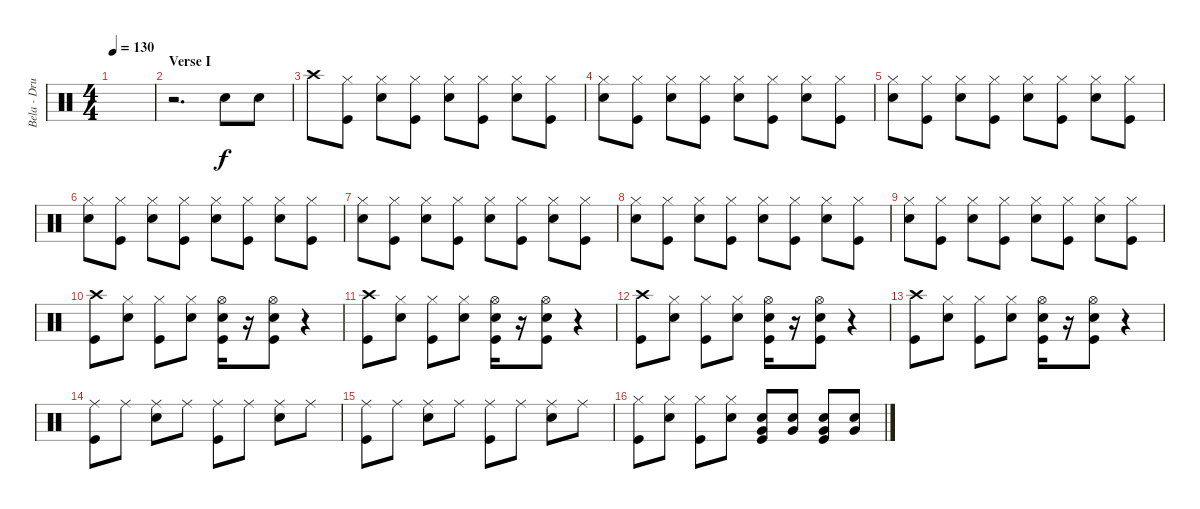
\track ("Bela - Drums" "Bela - Dru") {instrument percussion}
\staff {score}
\articulation defaults
\ts (4 4)
\tempo 130
\clef neutral
\ks c
|
\section ("" "Verse I")
r.2{d} "Electric Snare (hit)".8 "Electric Snare (hit)".8 |
"Crash high (hit)".8 ("Hi-Hat (closed)" "Kick (hit)").8 ("Hi-Hat (closed)" "Electric Snare (hit)").8 ("Hi-Hat (closed)" "Kick (hit)").8 ("Hi-Hat (closed)" "Electric Snare (hit)").8 ("Hi-Hat (closed)" "Kick (hit)").8 ("Hi-Hat (closed)" "Electric Snare (hit)").8 ("Hi-Hat (closed)" "Kick (hit)").8 |
("Hi-Hat (closed)" "Electric Snare (hit)").8 ("Hi-Hat (closed)" "Kick (hit)").8 ("Hi-Hat (closed)" "Electric Snare (hit)").8 ("Hi-Hat (closed)" "Kick (hit)").8 ("Hi-Hat (closed)" "Electric Snare (hit)").8 ("Hi-Hat (closed)" "Kick (hit)").8 ("Hi-Hat (closed)" "Electric Snare (hit)").8 ("Hi-Hat (closed)" "Kick (hit)").8 |
("Hi-Hat (closed)" "Electric Snare (hit)").8 ("Hi-Hat (closed)" "Kick (hit)").8 ("Hi-Hat (closed)" "Electric Snare (hit)").8 ("Hi-Hat (closed)" "Kick (hit)").8 ("Hi-Hat (closed)" "Electric Snare (hit)").8 ("Hi-Hat (closed)" "Kick (hit)").8 ("Hi-Hat (closed)" "Electric Snare (hit)").8 ("Hi-Hat (closed)" "Kick (hit)").8 |
("Hi-Hat (closed)" "Electric Snare (hit)").8 ("Hi-Hat (closed)" "Kick (hit)").8 ("Hi-Hat (closed)" "Electric Snare (hit)").8 ("Hi-Hat (closed)" "Kick (hit)").8 ("Hi-Hat (closed)" "Electric Snare (hit)").8 ("Hi-Hat (closed)" "Kick (hit)").8 ("Hi-Hat (closed)" "Electric Snare (hit)").8 ("Hi-Hat (closed)" "Kick (hit)").8 |
("Hi-Hat (closed)" "Electric Snare (hit)").8 ("Hi-Hat (closed)" "Kick (hit)").8 ("Hi-Hat (closed)" "Electric Snare (hit)").8 ("Hi-Hat (closed)" "Kick (hit)").8 ("Hi-Hat (closed)" "Electric Snare (hit)").8 ("Hi-Hat (closed)" "Kick (hit)").8 ("Hi-Hat (closed)" "Electric Snare (hit)").8 ("Hi-Hat (closed)" "Kick (hit)").8 |
("Hi-Hat (closed)" "Electric Snare (hit)").8 ("Hi-Hat (closed)" "Kick (hit)").8 ("Hi-Hat (closed)" "Electric Snare (hit)").8 ("Hi-Hat (closed)" "Kick (hit)").8 ("Hi-Hat (closed)" "Electric Snare (hit)").8 ("Hi-Hat (closed)" "Kick (hit)").8 ("Hi-Hat (closed)" "Electric Snare (hit)").8 ("Hi-Hat (closed)" "Kick (hit)").8 |
("Hi-Hat (closed)" "Electric Snare (hit)").8 ("Hi-Hat (closed)" "Kick (hit)").8 ("Hi-Hat (closed)" "Electric Snare (hit)").8 ("Hi-Hat (closed)" "Kick (hit)").8 ("Hi-Hat (closed)" "Electric Snare (hit)").8 ("Hi-Hat (closed)" "Kick (hit)").8 ("Hi-Hat (closed)" "Electric Snare (hit)").8 ("Hi-Hat (closed)" "Kick (hit)").8 |
("Crash high (hit)" "Kick (hit)").8 ("Hi-Hat (closed)" "Electric Snare (hit)").8 ("Hi-Hat (closed)" "Kick (hit)").8 ("Hi-Hat (closed)" "Electric Snare (hit)").8 ("Hi-Hat (open)" "Electric Snare (hit)" "Kick (hit)").16 r.16 ("Hi-Hat (open)" "Electric Snare (hit)" "Kick (hit)").8 r.4 |
("Crash high (hit)" "Kick (hit)").8 ("Hi-Hat (closed)" "Electric Snare (hit)").8 ("Hi-Hat (closed)" "Kick (hit)").8 ("Hi-Hat (closed)" "Electric Snare (hit)").8 ("Hi-Hat (open)" "Electric Snare (hit)" "Kick (hit)").16 r.16 ("Hi-Hat (open)" "Electric Snare (hit)" "Kick (hit)").8 r.4 |
("Crash high (hit)" "Kick (hit)").8 ("Hi-Hat (closed)" "Electric Snare (hit)").8 ("Hi-Hat (closed)" "Kick (hit)").8 ("Hi-Hat (closed)" "Electric Snare (hit)").8 ("Hi-Hat (open)" "Electric Snare (hit)" "Kick (hit)").16 r.16 ("Hi-Hat (open)" "Electric Snare (hit)" "Kick (hit)").8 r.4 |
("Crash high (hit)" "Kick (hit)").8 ("Hi-Hat (closed)" "Electric Snare (hit)").8 ("Hi-Hat (closed)" "Kick (hit)").8 ("Hi-Hat (closed)" "Electric Snare (hit)").8 ("Hi-Hat (open)" "Electric Snare (hit)" "Kick (hit)").16 r.16 ("Hi-Hat (open)" "Electric Snare (hit)" "Kick (hit)").8 r.4 |
("Ride (middle)" "Kick (hit)").8 "Ride (middle)".8 ("Ride (middle)" "Electric Snare (hit)").8 "Ride (middle)".8 ("Ride (middle)" "Kick (hit)").8 "Ride (middle)".8 ("Ride (middle)" "Electric Snare (hit)").8 "Ride (middle)".8 |
("Ride (middle)" "Kick (hit)").8 "Ride (middle)".8 ("Ride (middle)" "Electric Snare (hit)").8 "Ride (middle)".8 ("Ride (middle)" "Kick (hit)").8 "Ride (middle)".8 ("Ride (middle)" "Electric Snare (hit)").8 "Ride (middle)".8 |
("Hi-Hat (closed)" "Kick (hit)").8 ("Hi-Hat (closed)" "Electric Snare (hit)").8 ("Hi-Hat (closed)" "Kick (hit)").8 ("Hi-Hat (closed)" "Electric Snare (hit)").8 ("Very Low Tom (hit)" "Electric Snare (hit)" "Kick (hit)").8 ("Very Low Tom (hit)" "Electric Snare (hit)").8 ("Very Low Tom (hit)" "Electric Snare (hit)" "Kick (hit)").8 ("Very Low Tom (hit)" "Electric Snare (hit)").8
